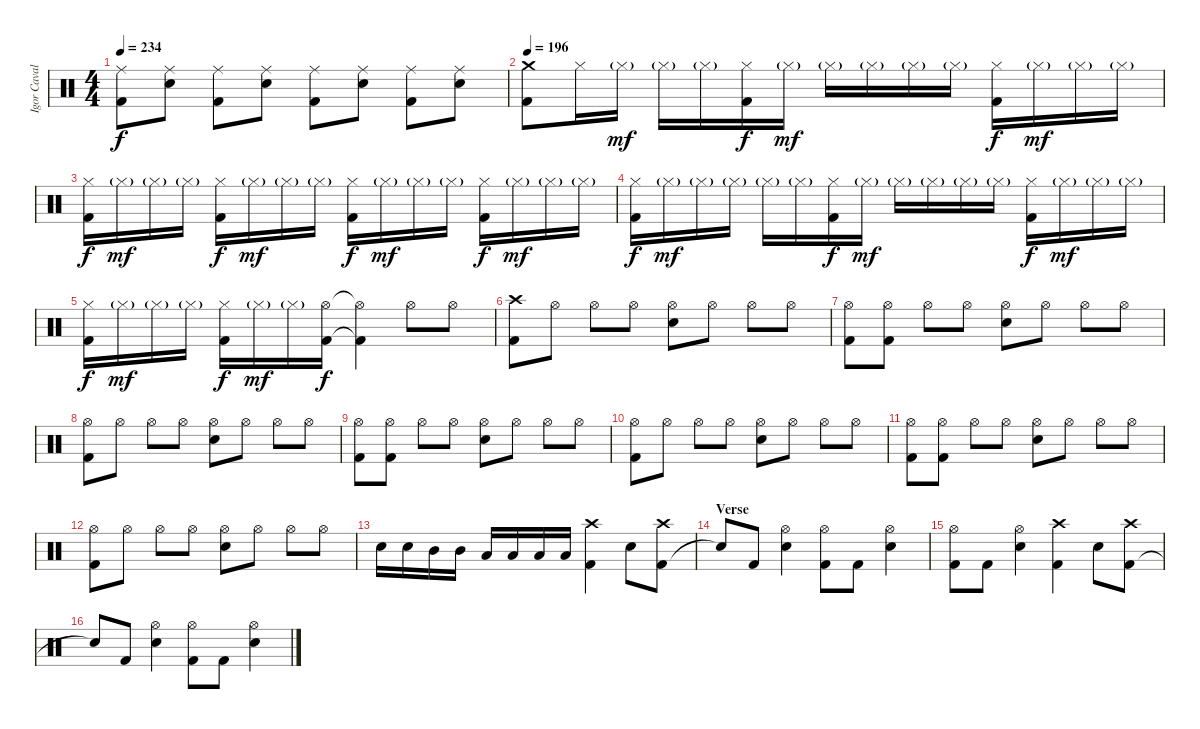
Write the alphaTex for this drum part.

\track ("Igor Cavalera" "Igor Caval") {instrument percussion}
\staff {score}
\articulation defaults
\ts (4 4)
\tempo 234
\clef neutral
\ks c
("Kick (hit) 2" "Ride (middle)").8{dy f} ("Snare (hit) 2" "Ride (middle)").8 ("Kick (hit) 2" "Ride (middle)").8 ("Snare (hit) 2" "Ride (middle)").8 ("Kick (hit) 2" "Ride (middle)").8 ("Snare (hit) 2" "Ride (middle)").8 ("Kick (hit) 2" "Ride (middle)").8 ("Snare (hit) 2" "Ride (middle)").8 |
\tempo 196
("Kick (hit) 2" "Crash medium (hit)").8 "Hi-Hat (closed)".16 "Hi-Hat (closed)"{g}.16{dy mf} "Hi-Hat (closed)"{g}.16 "Hi-Hat (closed)"{g}.16 ("Kick (hit) 2" "Hi-Hat (closed)").16{dy f} "Hi-Hat (closed)"{g}.16{dy mf} "Hi-Hat (closed)"{g}.16 "Hi-Hat (closed)"{g}.16 "Hi-Hat (closed)"{g}.16 "Hi-Hat (closed)"{g}.16 ("Kick (hit) 2" "Hi-Hat (closed)").16{dy f} "Hi-Hat (closed)"{g}.16{dy mf} "Hi-Hat (closed)"{g}.16 "Hi-Hat (closed)"{g}.16 |
("Kick (hit) 2" "Hi-Hat (closed)").16{dy f} "Hi-Hat (closed)"{g}.16{dy mf} "Hi-Hat (closed)"{g}.16 "Hi-Hat (closed)"{g}.16 ("Kick (hit) 2" "Hi-Hat (closed)").16{dy f} "Hi-Hat (closed)"{g}.16{dy mf} "Hi-Hat (closed)"{g}.16 "Hi-Hat (closed)"{g}.16 ("Kick (hit) 2" "Hi-Hat (closed)").16{dy f} "Hi-Hat (closed)"{g}.16{dy mf} "Hi-Hat (closed)"{g}.16 "Hi-Hat (closed)"{g}.16 ("Kick (hit) 2" "Hi-Hat (closed)").16{dy f} "Hi-Hat (closed)"{g}.16{dy mf} "Hi-Hat (closed)"{g}.16 "Hi-Hat (closed)"{g}.16 |
("Kick (hit) 2" "Hi-Hat (closed)").16{dy f} "Hi-Hat (closed)"{g}.16{dy mf} "Hi-Hat (closed)"{g}.16 "Hi-Hat (closed)"{g}.16 "Hi-Hat (closed)"{g}.16 "Hi-Hat (closed)"{g}.16 ("Kick (hit) 2" "Hi-Hat (closed)").16{dy f} "Hi-Hat (closed)"{g}.16{dy mf} "Hi-Hat (closed)"{g}.16 "Hi-Hat (closed)"{g}.16 "Hi-Hat (closed)"{g}.16 "Hi-Hat (closed)"{g}.16 ("Kick (hit) 2" "Hi-Hat (closed)").16{dy f} "Hi-Hat (closed)"{g}.16{dy mf} "Hi-Hat (closed)"{g}.16 "Hi-Hat (closed)"{g}.16 |
("Kick (hit) 2" "Hi-Hat (closed)").16{dy f} "Hi-Hat (closed)"{g}.16{dy mf} "Hi-Hat (closed)"{g}.16 "Hi-Hat (closed)"{g}.16 ("Kick (hit) 2" "Hi-Hat (closed)").16{dy f} "Hi-Hat (closed)"{g}.16{dy mf} "Hi-Hat (closed)"{g}.16 ("Kick (hit) 2" "Hi-Hat (open)").16{dy f} ("Kick (hit) 2"{t} "Hi-Hat (open)"{t}).4 "Hi-Hat (open)".8 "Hi-Hat (open)".8 |
("Kick (hit) 2" "Crash high (hit)").8 "Hi-Hat (open)".8 "Hi-Hat (open)".8 "Hi-Hat (open)".8 ("Snare (hit) 2" "Hi-Hat (open)").8 "Hi-Hat (open)".8 "Hi-Hat (open)".8 "Hi-Hat (open)".8 |
("Kick (hit) 2" "Hi-Hat (open)").8 ("Kick (hit) 2" "Hi-Hat (open)").8 "Hi-Hat (open)".8 "Hi-Hat (open)".8 ("Snare (hit) 2" "Hi-Hat (open)").8 "Hi-Hat (open)".8 "Hi-Hat (open)".8 "Hi-Hat (open)".8 |
("Kick (hit) 2" "Hi-Hat (open)").8 "Hi-Hat (open)".8 "Hi-Hat (open)".8 "Hi-Hat (open)".8 ("Snare (hit) 2" "Hi-Hat (open)").8 "Hi-Hat (open)".8 "Hi-Hat (open)".8 "Hi-Hat (open)".8 |
("Kick (hit) 2" "Hi-Hat (open)").8 ("Kick (hit) 2" "Hi-Hat (open)").8 "Hi-Hat (open)".8 "Hi-Hat (open)".8 ("Snare (hit) 2" "Hi-Hat (open)").8 "Hi-Hat (open)".8 "Hi-Hat (open)".8 "Hi-Hat (open)".8 |
("Kick (hit) 2" "Hi-Hat (open)").8 "Hi-Hat (open)".8 "Hi-Hat (open)".8 "Hi-Hat (open)".8 ("Snare (hit) 2" "Hi-Hat (open)").8 "Hi-Hat (open)".8 "Hi-Hat (open)".8 "Hi-Hat (open)".8 |
("Kick (hit) 2" "Hi-Hat (open)").8 ("Kick (hit) 2" "Hi-Hat (open)").8 "Hi-Hat (open)".8 "Hi-Hat (open)".8 ("Snare (hit) 2" "Hi-Hat (open)").8 "Hi-Hat (open)".8 "Hi-Hat (open)".8 "Hi-Hat (open)".8 |
("Kick (hit) 2" "Hi-Hat (open)").8 "Hi-Hat (open)".8 "Hi-Hat (open)".8 "Hi-Hat (open)".8 ("Snare (hit) 2" "Hi-Hat (open)").8 "Hi-Hat (open)".8 "Hi-Hat (open)".8 "Hi-Hat (open)".8 |
"Snare (hit) 2".16 "Snare (hit) 2".16 "Mid Tom (hit)".16 "Mid Tom (hit)".16 "Low Tom (hit)".16 "Low Tom (hit)".16 "Low Tom (hit)".16 "Low Tom (hit)".16 ("Kick (hit) 2" "Crash high (hit)").4 "Snare (hit) 2".8 ("Kick (hit) 2" "Crash high (hit)").8 |
\section ("" "Verse")
"Snare (hit)"{t}.8 "Kick (hit) 2".8 ("Snare (hit) 2" "Hi-Hat (open)").4 ("Kick (hit) 2" "Hi-Hat (open)").8 "Kick (hit) 2".8 ("Snare (hit) 2" "Hi-Hat (open)").4 |
("Kick (hit) 2" "Hi-Hat (open)").8 "Kick (hit) 2".8 ("Snare (hit) 2" "Hi-Hat (open)").4 ("Kick (hit) 2" "Crash high (hit)").4 "Snare (hit) 2".8 ("Kick (hit) 2" "Crash high (hit)").8 |
"Snare (hit)"{t}.8 "Kick (hit) 2".8 ("Snare (hit) 2" "Hi-Hat (open)").4 ("Kick (hit) 2" "Hi-Hat (open)").8 "Kick (hit) 2".8 ("Snare (hit) 2" "Hi-Hat (open)").4
